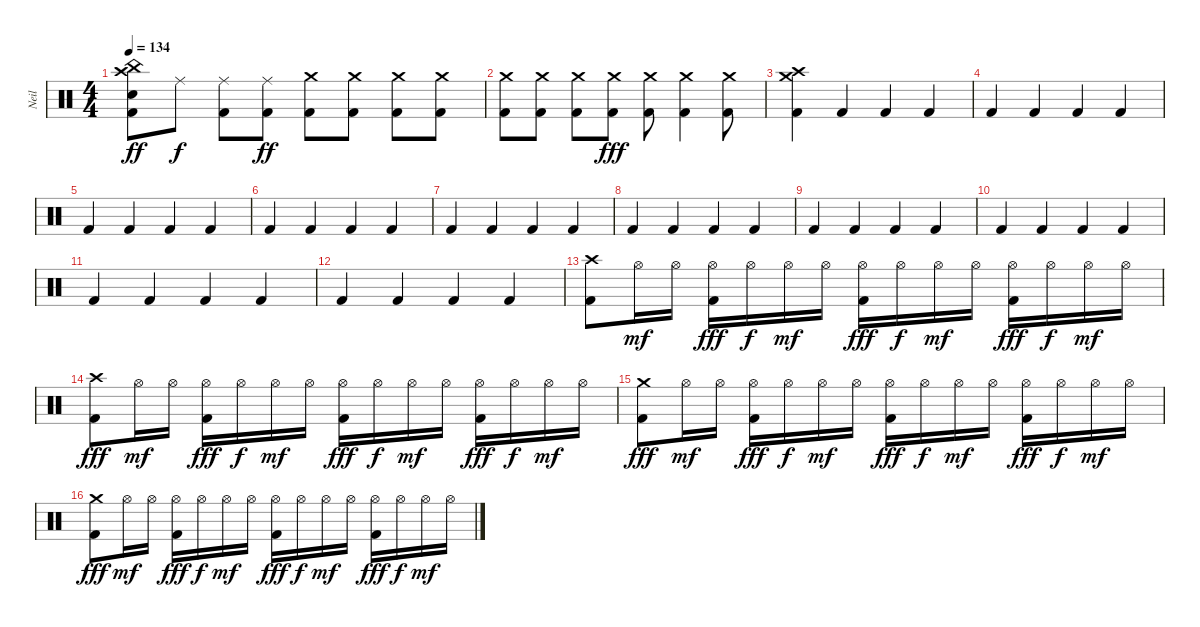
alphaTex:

\track ("Neil" "Neil") {instrument percussion}
\staff {score}
\articulation defaults
\ts (4 4)
\tempo 134
\clef neutral
\ks c
("Crash high (hit)" "Snare (hit) 2" "Kick (hit) 2" "China (hit)").8{dy ff} "Ride (middle)".8{dy f} ("Kick (hit) 2" "Ride (middle)").8 ("Kick (hit) 2" "Ride (middle)").8{dy ff} ("Crash medium (hit)" "Kick (hit) 2").8 ("Crash medium (hit)" "Kick (hit) 2").8 ("Crash medium (hit)" "Kick (hit) 2").8 ("Crash medium (hit)" "Kick (hit) 2").8 |
("Crash medium (hit)" "Kick (hit) 2").8 ("Crash medium (hit)" "Kick (hit) 2").8 ("Crash medium (hit)" "Kick (hit) 2").8 ("Crash medium (hit)" "Kick (hit) 2").8{dy fff} ("Crash medium (hit)" "Kick (hit) 2").8 ("Crash medium (hit)" "Kick (hit) 2").4 ("Crash medium (hit)" "Kick (hit) 2").8 |
("Crash medium (hit)" "Crash high (hit)" "Kick (hit) 2").4 "Kick (hit) 2".4 "Kick (hit) 2".4 "Kick (hit) 2".4 |
"Kick (hit) 2".4 "Kick (hit) 2".4 "Kick (hit) 2".4 "Kick (hit) 2".4 |
"Kick (hit) 2".4 "Kick (hit) 2".4 "Kick (hit) 2".4 "Kick (hit) 2".4 |
"Kick (hit) 2".4 "Kick (hit) 2".4 "Kick (hit) 2".4 "Kick (hit) 2".4 |
"Kick (hit) 2".4 "Kick (hit) 2".4 "Kick (hit) 2".4 "Kick (hit) 2".4 |
"Kick (hit) 2".4 "Kick (hit) 2".4 "Kick (hit) 2".4 "Kick (hit) 2".4 |
"Kick (hit) 2".4 "Kick (hit) 2".4 "Kick (hit) 2".4 "Kick (hit) 2".4 |
"Kick (hit) 2".4 "Kick (hit) 2".4 "Kick (hit) 2".4 "Kick (hit) 2".4 |
"Kick (hit) 2".4 "Kick (hit) 2".4 "Kick (hit) 2".4 "Kick (hit) 2".4 |
"Kick (hit) 2".4 "Kick (hit) 2".4 "Kick (hit) 2".4 "Kick (hit) 2".4 |
("Crash high (hit)" "Kick (hit) 2").8 "Hi-Hat (open)".16{dy mf} "Hi-Hat (open)".16 ("Hi-Hat (open)" "Kick (hit) 2").16{dy fff} "Hi-Hat (open)".16{dy f} "Hi-Hat (open)".16{dy mf} "Hi-Hat (open)".16 ("Hi-Hat (open)" "Kick (hit) 2").16{dy fff} "Hi-Hat (open)".16{dy f} "Hi-Hat (open)".16{dy mf} "Hi-Hat (open)".16 ("Hi-Hat (open)" "Kick (hit) 2").16{dy fff} "Hi-Hat (open)".16{dy f} "Hi-Hat (open)".16{dy mf} "Hi-Hat (open)".16 |
("Crash high (hit)" "Kick (hit) 2").8{dy fff} "Hi-Hat (open)".16{dy mf} "Hi-Hat (open)".16 ("Hi-Hat (open)" "Kick (hit) 2").16{dy fff} "Hi-Hat (open)".16{dy f} "Hi-Hat (open)".16{dy mf} "Hi-Hat (open)".16 ("Hi-Hat (open)" "Kick (hit) 2").16{dy fff} "Hi-Hat (open)".16{dy f} "Hi-Hat (open)".16{dy mf} "Hi-Hat (open)".16 ("Hi-Hat (open)" "Kick (hit) 2").16{dy fff} "Hi-Hat (open)".16{dy f} "Hi-Hat (open)".16{dy mf} "Hi-Hat (open)".16 |
("Crash medium (hit)" "Kick (hit) 2").8{dy fff} "Hi-Hat (open)".16{dy mf} "Hi-Hat (open)".16 ("Hi-Hat (open)" "Kick (hit) 2").16{dy fff} "Hi-Hat (open)".16{dy f} "Hi-Hat (open)".16{dy mf} "Hi-Hat (open)".16 ("Hi-Hat (open)" "Kick (hit) 2").16{dy fff} "Hi-Hat (open)".16{dy f} "Hi-Hat (open)".16{dy mf} "Hi-Hat (open)".16 ("Hi-Hat (open)" "Kick (hit) 2").16{dy fff} "Hi-Hat (open)".16{dy f} "Hi-Hat (open)".16{dy mf} "Hi-Hat (open)".16 |
("Crash medium (hit)" "Kick (hit) 2").8{dy fff} "Hi-Hat (open)".16{dy mf} "Hi-Hat (open)".16 ("Hi-Hat (open)" "Kick (hit) 2").16{dy fff} "Hi-Hat (open)".16{dy f} "Hi-Hat (open)".16{dy mf} "Hi-Hat (open)".16 ("Hi-Hat (open)" "Kick (hit) 2").16{dy fff} "Hi-Hat (open)".16{dy f} "Hi-Hat (open)".16{dy mf} "Hi-Hat (open)".16 ("Hi-Hat (open)" "Kick (hit) 2").16{dy fff} "Hi-Hat (open)".16{dy f} "Hi-Hat (open)".16{dy mf} "Hi-Hat (open)".16
